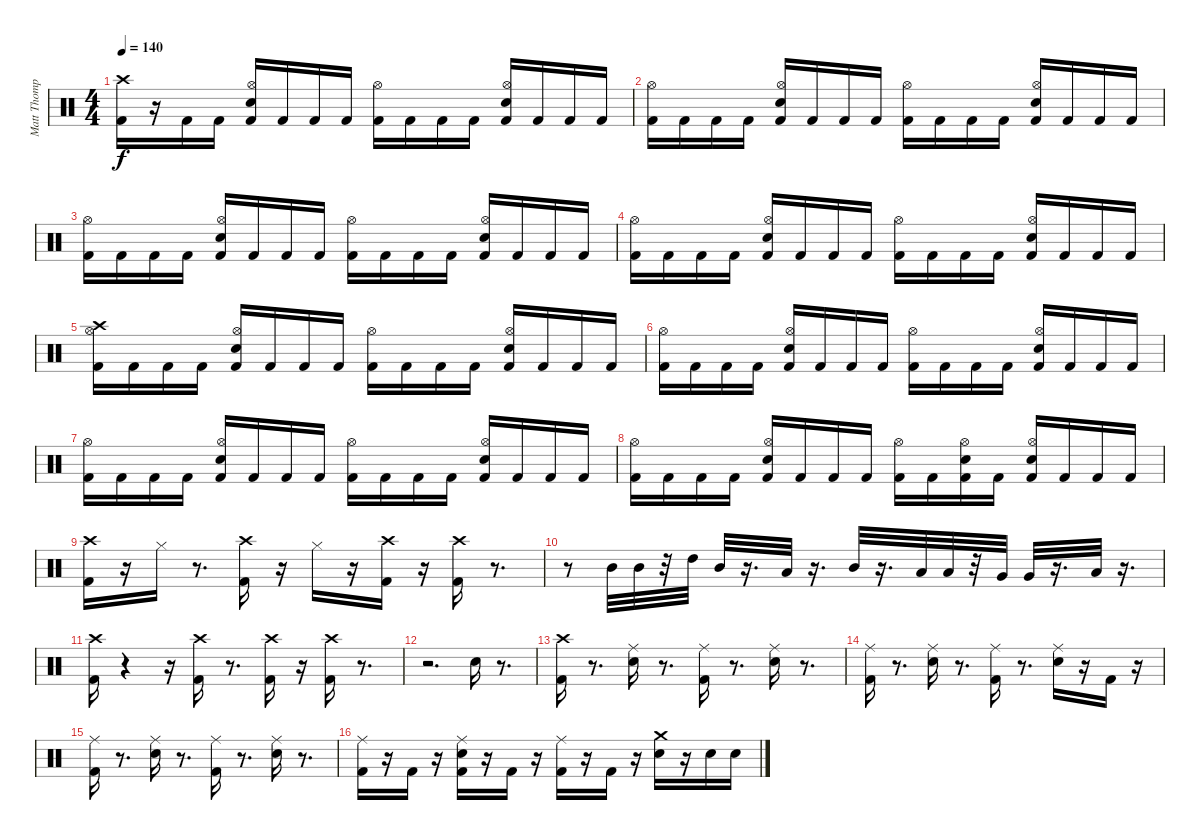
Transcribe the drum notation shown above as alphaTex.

\track ("Matt Thompson" "Matt Thomp") {instrument percussion}
\staff {score}
\articulation defaults
\ts (4 4)
\tempo 140
\clef neutral
\ks c
("Crash high (hit)" "Kick (hit) 2").16{dy f} r.16 "Kick (hit) 2".16 "Kick (hit) 2".16 ("Hi-Hat (open)" "Snare (hit) 2" "Kick (hit) 2").16 "Kick (hit) 2".16 "Kick (hit) 2".16 "Kick (hit) 2".16 ("Hi-Hat (open)" "Kick (hit) 2").16 "Kick (hit) 2".16 "Kick (hit) 2".16 "Kick (hit) 2".16 ("Hi-Hat (open)" "Snare (hit) 2" "Kick (hit) 2").16 "Kick (hit) 2".16 "Kick (hit) 2".16 "Kick (hit) 2".16 |
("Hi-Hat (open)" "Kick (hit) 2").16 "Kick (hit) 2".16 "Kick (hit) 2".16 "Kick (hit) 2".16 ("Hi-Hat (open)" "Snare (hit) 2" "Kick (hit) 2").16 "Kick (hit) 2".16 "Kick (hit) 2".16 "Kick (hit) 2".16 ("Hi-Hat (open)" "Kick (hit) 2").16 "Kick (hit) 2".16 "Kick (hit) 2".16 "Kick (hit) 2".16 ("Hi-Hat (open)" "Snare (hit) 2" "Kick (hit) 2").16 "Kick (hit) 2".16 "Kick (hit) 2".16 "Kick (hit) 2".16 |
("Hi-Hat (open)" "Kick (hit) 2").16 "Kick (hit) 2".16 "Kick (hit) 2".16 "Kick (hit) 2".16 ("Hi-Hat (open)" "Snare (hit) 2" "Kick (hit) 2").16 "Kick (hit) 2".16 "Kick (hit) 2".16 "Kick (hit) 2".16 ("Hi-Hat (open)" "Kick (hit) 2").16 "Kick (hit) 2".16 "Kick (hit) 2".16 "Kick (hit) 2".16 ("Hi-Hat (open)" "Snare (hit) 2" "Kick (hit) 2").16 "Kick (hit) 2".16 "Kick (hit) 2".16 "Kick (hit) 2".16 |
("Hi-Hat (open)" "Kick (hit) 2").16 "Kick (hit) 2".16 "Kick (hit) 2".16 "Kick (hit) 2".16 ("Hi-Hat (open)" "Snare (hit) 2" "Kick (hit) 2").16 "Kick (hit) 2".16 "Kick (hit) 2".16 "Kick (hit) 2".16 ("Hi-Hat (open)" "Kick (hit) 2").16 "Kick (hit) 2".16 "Kick (hit) 2".16 "Kick (hit) 2".16 ("Hi-Hat (open)" "Snare (hit) 2" "Kick (hit) 2").16 "Kick (hit) 2".16 "Kick (hit) 2".16 "Kick (hit) 2".16 |
("Hi-Hat (open)" "Crash high (hit)" "Kick (hit) 2").16 "Kick (hit) 2".16 "Kick (hit) 2".16 "Kick (hit) 2".16 ("Hi-Hat (open)" "Snare (hit) 2" "Kick (hit) 2").16 "Kick (hit) 2".16 "Kick (hit) 2".16 "Kick (hit) 2".16 ("Hi-Hat (open)" "Kick (hit) 2").16 "Kick (hit) 2".16 "Kick (hit) 2".16 "Kick (hit) 2".16 ("Hi-Hat (open)" "Snare (hit) 2" "Kick (hit) 2").16 "Kick (hit) 2".16 "Kick (hit) 2".16 "Kick (hit) 2".16 |
("Hi-Hat (open)" "Kick (hit) 2").16 "Kick (hit) 2".16 "Kick (hit) 2".16 "Kick (hit) 2".16 ("Hi-Hat (open)" "Snare (hit) 2" "Kick (hit) 2").16 "Kick (hit) 2".16 "Kick (hit) 2".16 "Kick (hit) 2".16 ("Hi-Hat (open)" "Kick (hit) 2").16 "Kick (hit) 2".16 "Kick (hit) 2".16 "Kick (hit) 2".16 ("Hi-Hat (open)" "Snare (hit) 2" "Kick (hit) 2").16 "Kick (hit) 2".16 "Kick (hit) 2".16 "Kick (hit) 2".16 |
("Hi-Hat (open)" "Kick (hit) 2").16 "Kick (hit) 2".16 "Kick (hit) 2".16 "Kick (hit) 2".16 ("Hi-Hat (open)" "Snare (hit) 2" "Kick (hit) 2").16 "Kick (hit) 2".16 "Kick (hit) 2".16 "Kick (hit) 2".16 ("Hi-Hat (open)" "Kick (hit) 2").16 "Kick (hit) 2".16 "Kick (hit) 2".16 "Kick (hit) 2".16 ("Hi-Hat (open)" "Snare (hit) 2" "Kick (hit) 2").16 "Kick (hit) 2".16 "Kick (hit) 2".16 "Kick (hit) 2".16 |
("Hi-Hat (open)" "Kick (hit) 2").16 "Kick (hit) 2".16 "Kick (hit) 2".16 "Kick (hit) 2".16 ("Hi-Hat (open)" "Snare (hit) 2" "Kick (hit) 2").16 "Kick (hit) 2".16 "Kick (hit) 2".16 "Kick (hit) 2".16 ("Hi-Hat (open)" "Kick (hit) 2").16 "Kick (hit) 2".16 ("Hi-Hat (open)" "Snare (hit) 2" "Kick (hit) 2").16 "Kick (hit) 2".16 ("Hi-Hat (open)" "Snare (hit) 2" "Kick (hit) 2").16 "Kick (hit) 2".16 "Kick (hit) 2".16 "Kick (hit) 2".16 |
("Crash high (hit)" "Kick (hit) 2").16 r.16 "Hi-Hat (closed)".16 r.8{d} ("Crash high (hit)" "Kick (hit) 2").16 r.16 "Hi-Hat (closed)".16 r.16 ("Crash high (hit)" "Kick (hit) 2").16 r.16 ("Crash high (hit)" "Kick (hit) 2").16 r.8{d} |
r.8 "Mid Tom (hit)".32 "Mid Tom (hit)".32 r.32 "High Tom (hit)".32 "Mid Tom (hit)".32 r.16{d} "Low Tom (hit)".32 r.16{d} "Mid Tom (hit)".32 r.16{d} "Low Tom (hit)".32 "Low Tom (hit)".32 r.32 "Very Low Tom (hit)".32 "Very Low Tom (hit)".32 r.16{d} "Low Floor Tom (hit)".32 r.16{d} |
("Crash high (hit)" "Kick (hit) 2").16 r.4 r.16 ("Crash high (hit)" "Kick (hit) 2").16 r.8{d} ("Crash high (hit)" "Kick (hit) 2").16 r.16 ("Crash high (hit)" "Kick (hit) 2").16 r.8{d} |
r.2{d} "Snare (hit) 2".16 r.8{d} |
("Crash high (hit)" "Kick (hit) 2").16 r.8{d} ("Ride (middle)" "Snare (hit) 2").16 r.8{d} ("Ride (middle)" "Kick (hit) 2").16 r.8{d} ("Ride (middle)" "Snare (hit) 2").16 r.8{d} |
("Ride (middle)" "Kick (hit) 2").16 r.8{d} ("Ride (middle)" "Snare (hit) 2").16 r.8{d} ("Ride (middle)" "Kick (hit) 2").16 r.8{d} ("Ride (middle)" "Snare (hit) 2").16 r.16 "Kick (hit) 2".16 r.16 |
("Ride (middle)" "Kick (hit) 2").16 r.8{d} ("Ride (middle)" "Snare (hit) 2").16 r.8{d} ("Ride (middle)" "Kick (hit) 2").16 r.8{d} ("Ride (middle)" "Snare (hit) 2").16 r.8{d} |
("Ride (middle)" "Kick (hit) 2").16 r.16 "Kick (hit) 2".16 r.16 ("Ride (middle)" "Kick (hit) 2" "Snare (hit) 2").16 r.16 "Kick (hit) 2".16 r.16 ("Ride (middle)" "Kick (hit) 2").16 r.16 "Kick (hit) 2".16 r.16 ("Crash medium (hit)" "Snare (hit) 2").16 r.16 "Snare (hit) 2".16 "Snare (hit) 2".16
